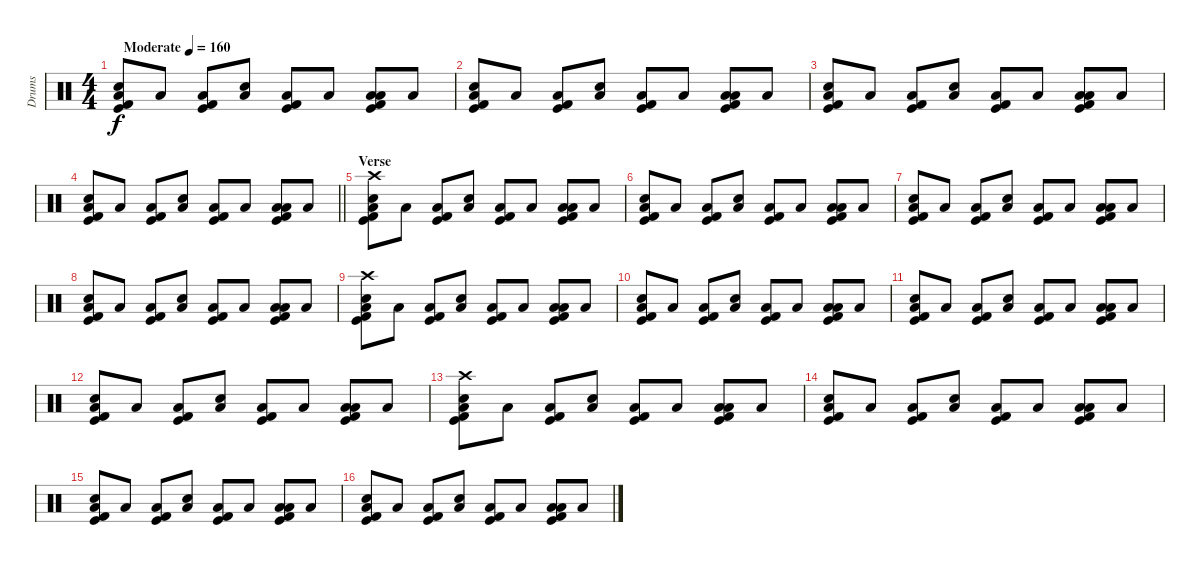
\track ("Drums" "Drums") {instrument percussion}
\staff {score}
\articulation defaults
\ts (4 4)
\tempo (160 "Moderate")
\clef neutral
\ks c
("Snare (hit) 2" "Low Floor Tom (hit)" "Kick (hit)" "Kick (hit) 2").8{dy f} "Low Floor Tom (hit)".8 ("Low Floor Tom (hit)" "Kick (hit)" "Kick (hit) 2").8 ("Snare (hit) 2" "Low Floor Tom (hit)").8 ("Low Floor Tom (hit)" "Kick (hit)" "Kick (hit) 2").8 "Low Floor Tom (hit)".8 ("Low Tom (hit)" "Low Floor Tom (hit)" "Kick (hit)" "Kick (hit) 2").8 "Low Floor Tom (hit)".8 |
("Snare (hit) 2" "Low Floor Tom (hit)" "Kick (hit)" "Kick (hit) 2").8 "Low Floor Tom (hit)".8 ("Low Floor Tom (hit)" "Kick (hit)" "Kick (hit) 2").8 ("Snare (hit) 2" "Low Floor Tom (hit)").8 ("Low Floor Tom (hit)" "Kick (hit)" "Kick (hit) 2").8 "Low Floor Tom (hit)".8 ("Low Tom (hit)" "Low Floor Tom (hit)" "Kick (hit)" "Kick (hit) 2").8 "Low Floor Tom (hit)".8 |
("Snare (hit) 2" "Low Floor Tom (hit)" "Kick (hit)" "Kick (hit) 2").8 "Low Floor Tom (hit)".8 ("Low Floor Tom (hit)" "Kick (hit)" "Kick (hit) 2").8 ("Snare (hit) 2" "Low Floor Tom (hit)").8 ("Low Floor Tom (hit)" "Kick (hit)" "Kick (hit) 2").8 "Low Floor Tom (hit)".8 ("Low Tom (hit)" "Low Floor Tom (hit)" "Kick (hit)" "Kick (hit) 2").8 "Low Floor Tom (hit)".8 |
\barLineRight lightlight
("Snare (hit) 2" "Low Floor Tom (hit)" "Kick (hit)" "Kick (hit) 2").8 "Low Floor Tom (hit)".8 ("Low Floor Tom (hit)" "Kick (hit)" "Kick (hit) 2").8 ("Snare (hit) 2" "Low Floor Tom (hit)").8 ("Low Floor Tom (hit)" "Kick (hit)" "Kick (hit) 2").8 "Low Floor Tom (hit)".8 ("Low Tom (hit)" "Low Floor Tom (hit)" "Kick (hit)" "Kick (hit) 2").8 "Low Floor Tom (hit)".8 |
\section ("" "Verse")
("Crash high (hit)" "Snare (hit) 2" "Low Floor Tom (hit)" "Kick (hit)" "Kick (hit) 2").8 "Low Floor Tom (hit)".8 ("Low Floor Tom (hit)" "Kick (hit)" "Kick (hit) 2").8 ("Snare (hit) 2" "Low Floor Tom (hit)").8 ("Low Floor Tom (hit)" "Kick (hit)" "Kick (hit) 2").8 "Low Floor Tom (hit)".8 ("Low Tom (hit)" "Low Floor Tom (hit)" "Kick (hit)" "Kick (hit) 2").8 "Low Floor Tom (hit)".8 |
("Snare (hit) 2" "Low Floor Tom (hit)" "Kick (hit)" "Kick (hit) 2").8 "Low Floor Tom (hit)".8 ("Low Floor Tom (hit)" "Kick (hit)" "Kick (hit) 2").8 ("Snare (hit) 2" "Low Floor Tom (hit)").8 ("Low Floor Tom (hit)" "Kick (hit)" "Kick (hit) 2").8 "Low Floor Tom (hit)".8 ("Low Tom (hit)" "Low Floor Tom (hit)" "Kick (hit)" "Kick (hit) 2").8 "Low Floor Tom (hit)".8 |
("Snare (hit) 2" "Low Floor Tom (hit)" "Kick (hit)" "Kick (hit) 2").8 "Low Floor Tom (hit)".8 ("Low Floor Tom (hit)" "Kick (hit)" "Kick (hit) 2").8 ("Snare (hit) 2" "Low Floor Tom (hit)").8 ("Low Floor Tom (hit)" "Kick (hit)" "Kick (hit) 2").8 "Low Floor Tom (hit)".8 ("Low Tom (hit)" "Low Floor Tom (hit)" "Kick (hit)" "Kick (hit) 2").8 "Low Floor Tom (hit)".8 |
("Snare (hit) 2" "Low Floor Tom (hit)" "Kick (hit)" "Kick (hit) 2").8 "Low Floor Tom (hit)".8 ("Low Floor Tom (hit)" "Kick (hit)" "Kick (hit) 2").8 ("Snare (hit) 2" "Low Floor Tom (hit)").8 ("Low Floor Tom (hit)" "Kick (hit)" "Kick (hit) 2").8 "Low Floor Tom (hit)".8 ("Low Tom (hit)" "Low Floor Tom (hit)" "Kick (hit)" "Kick (hit) 2").8 "Low Floor Tom (hit)".8 |
("Crash high (hit)" "Snare (hit) 2" "Low Floor Tom (hit)" "Kick (hit)" "Kick (hit) 2").8 "Low Floor Tom (hit)".8 ("Low Floor Tom (hit)" "Kick (hit)" "Kick (hit) 2").8 ("Snare (hit) 2" "Low Floor Tom (hit)").8 ("Low Floor Tom (hit)" "Kick (hit)" "Kick (hit) 2").8 "Low Floor Tom (hit)".8 ("Low Tom (hit)" "Low Floor Tom (hit)" "Kick (hit)" "Kick (hit) 2").8 "Low Floor Tom (hit)".8 |
("Snare (hit) 2" "Low Floor Tom (hit)" "Kick (hit)" "Kick (hit) 2").8 "Low Floor Tom (hit)".8 ("Low Floor Tom (hit)" "Kick (hit)" "Kick (hit) 2").8 ("Snare (hit) 2" "Low Floor Tom (hit)").8 ("Low Floor Tom (hit)" "Kick (hit)" "Kick (hit) 2").8 "Low Floor Tom (hit)".8 ("Low Tom (hit)" "Low Floor Tom (hit)" "Kick (hit)" "Kick (hit) 2").8 "Low Floor Tom (hit)".8 |
("Snare (hit) 2" "Low Floor Tom (hit)" "Kick (hit)" "Kick (hit) 2").8 "Low Floor Tom (hit)".8 ("Low Floor Tom (hit)" "Kick (hit)" "Kick (hit) 2").8 ("Snare (hit) 2" "Low Floor Tom (hit)").8 ("Low Floor Tom (hit)" "Kick (hit)" "Kick (hit) 2").8 "Low Floor Tom (hit)".8 ("Low Tom (hit)" "Low Floor Tom (hit)" "Kick (hit)" "Kick (hit) 2").8 "Low Floor Tom (hit)".8 |
("Snare (hit) 2" "Low Floor Tom (hit)" "Kick (hit)" "Kick (hit) 2").8 "Low Floor Tom (hit)".8 ("Low Floor Tom (hit)" "Kick (hit)" "Kick (hit) 2").8 ("Snare (hit) 2" "Low Floor Tom (hit)").8 ("Low Floor Tom (hit)" "Kick (hit)" "Kick (hit) 2").8 "Low Floor Tom (hit)".8 ("Low Tom (hit)" "Low Floor Tom (hit)" "Kick (hit)" "Kick (hit) 2").8 "Low Floor Tom (hit)".8 |
("Crash high (hit)" "Snare (hit) 2" "Low Floor Tom (hit)" "Kick (hit)" "Kick (hit) 2").8 "Low Floor Tom (hit)".8 ("Low Floor Tom (hit)" "Kick (hit)" "Kick (hit) 2").8 ("Snare (hit) 2" "Low Floor Tom (hit)").8 ("Low Floor Tom (hit)" "Kick (hit)" "Kick (hit) 2").8 "Low Floor Tom (hit)".8 ("Low Tom (hit)" "Low Floor Tom (hit)" "Kick (hit)" "Kick (hit) 2").8 "Low Floor Tom (hit)".8 |
("Snare (hit) 2" "Low Floor Tom (hit)" "Kick (hit)" "Kick (hit) 2").8 "Low Floor Tom (hit)".8 ("Low Floor Tom (hit)" "Kick (hit)" "Kick (hit) 2").8 ("Snare (hit) 2" "Low Floor Tom (hit)").8 ("Low Floor Tom (hit)" "Kick (hit)" "Kick (hit) 2").8 "Low Floor Tom (hit)".8 ("Low Tom (hit)" "Low Floor Tom (hit)" "Kick (hit)" "Kick (hit) 2").8 "Low Floor Tom (hit)".8 |
("Snare (hit) 2" "Low Floor Tom (hit)" "Kick (hit)" "Kick (hit) 2").8 "Low Floor Tom (hit)".8 ("Low Floor Tom (hit)" "Kick (hit)" "Kick (hit) 2").8 ("Snare (hit) 2" "Low Floor Tom (hit)").8 ("Low Floor Tom (hit)" "Kick (hit)" "Kick (hit) 2").8 "Low Floor Tom (hit)".8 ("Low Tom (hit)" "Low Floor Tom (hit)" "Kick (hit)" "Kick (hit) 2").8 "Low Floor Tom (hit)".8 |
("Snare (hit) 2" "Low Floor Tom (hit)" "Kick (hit)" "Kick (hit) 2").8 "Low Floor Tom (hit)".8 ("Low Floor Tom (hit)" "Kick (hit)" "Kick (hit) 2").8 ("Snare (hit) 2" "Low Floor Tom (hit)").8 ("Low Floor Tom (hit)" "Kick (hit)" "Kick (hit) 2").8 "Low Floor Tom (hit)".8 ("Low Tom (hit)" "Low Floor Tom (hit)" "Kick (hit)" "Kick (hit) 2").8 "Low Floor Tom (hit)".8
